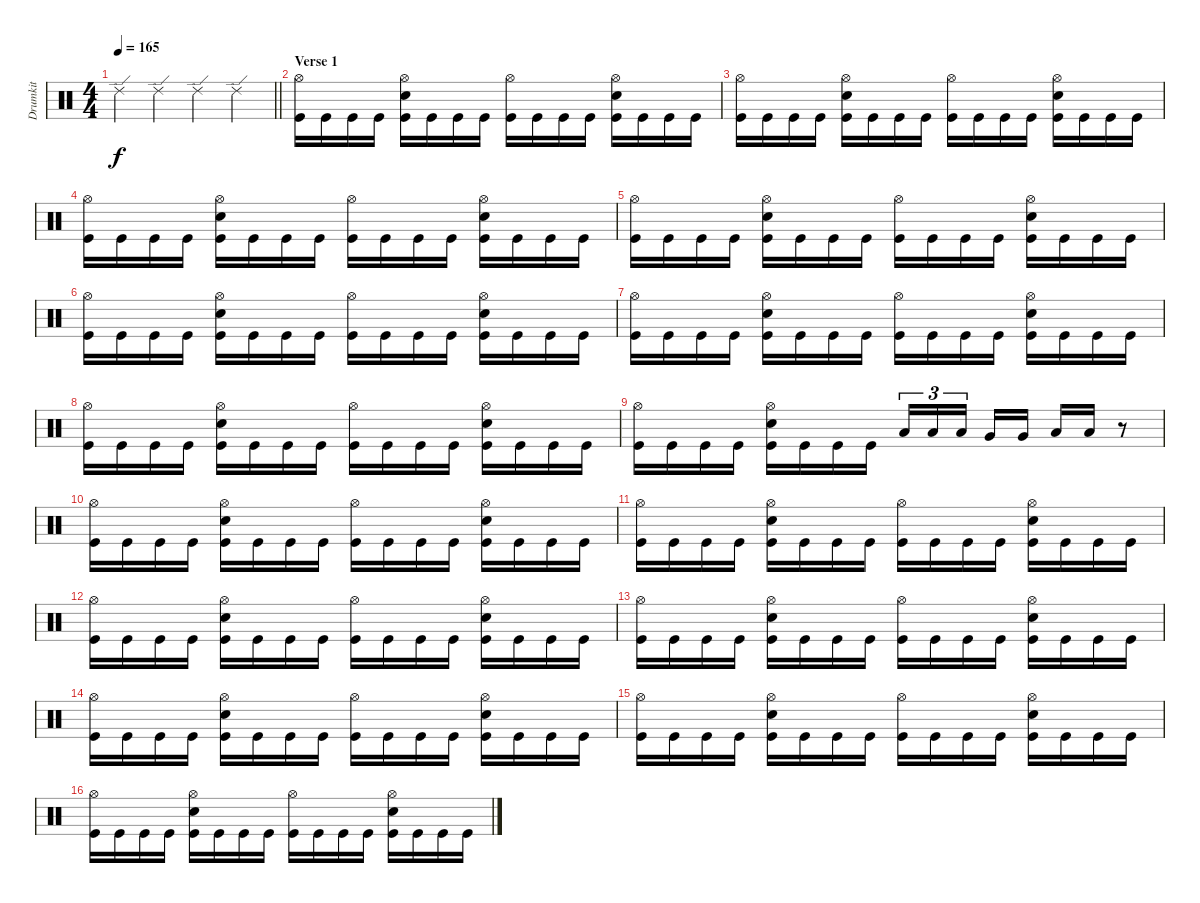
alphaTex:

\track ("Drumkit" "Drumkit") {instrument percussion}
\staff {score}
\articulation defaults
\ts (4 4)
\tempo 165
\clef neutral
\barLineRight lightlight
\ks c "Ride (edge) 2".4{dy f} "Ride (edge) 2".4 "Ride (edge) 2".4 "Ride (edge) 2".4
|
\section ("" "Verse 1")
("Hi-Hat (open)" "Kick (hit)").16 "Kick (hit)".16 "Kick (hit)".16 "Kick (hit)".16 ("Hi-Hat (open)" "Snare (hit) 2" "Kick (hit)").16 "Kick (hit)".16 "Kick (hit)".16 "Kick (hit)".16 ("Hi-Hat (open)" "Kick (hit)").16 "Kick (hit)".16 "Kick (hit)".16 "Kick (hit)".16 ("Hi-Hat (open)" "Snare (hit) 2" "Kick (hit)").16 "Kick (hit)".16 "Kick (hit)".16 "Kick (hit)".16 |
("Hi-Hat (open)" "Kick (hit)").16 "Kick (hit)".16 "Kick (hit)".16 "Kick (hit)".16 ("Hi-Hat (open)" "Snare (hit) 2" "Kick (hit)").16 "Kick (hit)".16 "Kick (hit)".16 "Kick (hit)".16 ("Hi-Hat (open)" "Kick (hit)").16 "Kick (hit)".16 "Kick (hit)".16 "Kick (hit)".16 ("Hi-Hat (open)" "Snare (hit) 2" "Kick (hit)").16 "Kick (hit)".16 "Kick (hit)".16 "Kick (hit)".16 |
("Hi-Hat (open)" "Kick (hit)").16 "Kick (hit)".16 "Kick (hit)".16 "Kick (hit)".16 ("Hi-Hat (open)" "Snare (hit) 2" "Kick (hit)").16 "Kick (hit)".16 "Kick (hit)".16 "Kick (hit)".16 ("Hi-Hat (open)" "Kick (hit)").16 "Kick (hit)".16 "Kick (hit)".16 "Kick (hit)".16 ("Hi-Hat (open)" "Snare (hit) 2" "Kick (hit)").16 "Kick (hit)".16 "Kick (hit)".16 "Kick (hit)".16 |
("Hi-Hat (open)" "Kick (hit)").16 "Kick (hit)".16 "Kick (hit)".16 "Kick (hit)".16 ("Hi-Hat (open)" "Snare (hit) 2" "Kick (hit)").16 "Kick (hit)".16 "Kick (hit)".16 "Kick (hit)".16 ("Hi-Hat (open)" "Kick (hit)").16 "Kick (hit)".16 "Kick (hit)".16 "Kick (hit)".16 ("Hi-Hat (open)" "Snare (hit) 2" "Kick (hit)").16 "Kick (hit)".16 "Kick (hit)".16 "Kick (hit)".16 |
("Hi-Hat (open)" "Kick (hit)").16 "Kick (hit)".16 "Kick (hit)".16 "Kick (hit)".16 ("Hi-Hat (open)" "Snare (hit) 2" "Kick (hit)").16 "Kick (hit)".16 "Kick (hit)".16 "Kick (hit)".16 ("Hi-Hat (open)" "Kick (hit)").16 "Kick (hit)".16 "Kick (hit)".16 "Kick (hit)".16 ("Hi-Hat (open)" "Snare (hit) 2" "Kick (hit)").16 "Kick (hit)".16 "Kick (hit)".16 "Kick (hit)".16 |
("Hi-Hat (open)" "Kick (hit)").16 "Kick (hit)".16 "Kick (hit)".16 "Kick (hit)".16 ("Hi-Hat (open)" "Snare (hit) 2" "Kick (hit)").16 "Kick (hit)".16 "Kick (hit)".16 "Kick (hit)".16 ("Hi-Hat (open)" "Kick (hit)").16 "Kick (hit)".16 "Kick (hit)".16 "Kick (hit)".16 ("Hi-Hat (open)" "Snare (hit) 2" "Kick (hit)").16 "Kick (hit)".16 "Kick (hit)".16 "Kick (hit)".16 |
("Hi-Hat (open)" "Kick (hit)").16 "Kick (hit)".16 "Kick (hit)".16 "Kick (hit)".16 ("Hi-Hat (open)" "Snare (hit) 2" "Kick (hit)").16 "Kick (hit)".16 "Kick (hit)".16 "Kick (hit)".16 ("Hi-Hat (open)" "Kick (hit)").16 "Kick (hit)".16 "Kick (hit)".16 "Kick (hit)".16 ("Hi-Hat (open)" "Snare (hit) 2" "Kick (hit)").16 "Kick (hit)".16 "Kick (hit)".16 "Kick (hit)".16 |
("Hi-Hat (open)" "Kick (hit)").16 "Kick (hit)".16 "Kick (hit)".16 "Kick (hit)".16 ("Hi-Hat (open)" "Snare (hit) 2" "Kick (hit)").16 "Kick (hit)".16 "Kick (hit)".16 "Kick (hit)".16 "Low Tom (hit)".16{tu (3 2)} "Low Tom (hit)".16{tu (3 2)} "Low Tom (hit)".16{tu (3 2)} "Very Low Tom (hit)".16 "Very Low Tom (hit)".16 "Low Floor Tom (hit)".16 "Low Floor Tom (hit)".16 r.8 |
("Hi-Hat (open)" "Kick (hit)").16 "Kick (hit)".16 "Kick (hit)".16 "Kick (hit)".16 ("Hi-Hat (open)" "Snare (hit) 2" "Kick (hit)").16 "Kick (hit)".16 "Kick (hit)".16 "Kick (hit)".16 ("Hi-Hat (open)" "Kick (hit)").16 "Kick (hit)".16 "Kick (hit)".16 "Kick (hit)".16 ("Hi-Hat (open)" "Snare (hit) 2" "Kick (hit)").16 "Kick (hit)".16 "Kick (hit)".16 "Kick (hit)".16 |
("Hi-Hat (open)" "Kick (hit)").16 "Kick (hit)".16 "Kick (hit)".16 "Kick (hit)".16 ("Hi-Hat (open)" "Snare (hit) 2" "Kick (hit)").16 "Kick (hit)".16 "Kick (hit)".16 "Kick (hit)".16 ("Hi-Hat (open)" "Kick (hit)").16 "Kick (hit)".16 "Kick (hit)".16 "Kick (hit)".16 ("Hi-Hat (open)" "Snare (hit) 2" "Kick (hit)").16 "Kick (hit)".16 "Kick (hit)".16 "Kick (hit)".16 |
("Hi-Hat (open)" "Kick (hit)").16 "Kick (hit)".16 "Kick (hit)".16 "Kick (hit)".16 ("Hi-Hat (open)" "Snare (hit) 2" "Kick (hit)").16 "Kick (hit)".16 "Kick (hit)".16 "Kick (hit)".16 ("Hi-Hat (open)" "Kick (hit)").16 "Kick (hit)".16 "Kick (hit)".16 "Kick (hit)".16 ("Hi-Hat (open)" "Snare (hit) 2" "Kick (hit)").16 "Kick (hit)".16 "Kick (hit)".16 "Kick (hit)".16 |
("Hi-Hat (open)" "Kick (hit)").16 "Kick (hit)".16 "Kick (hit)".16 "Kick (hit)".16 ("Hi-Hat (open)" "Snare (hit) 2" "Kick (hit)").16 "Kick (hit)".16 "Kick (hit)".16 "Kick (hit)".16 ("Hi-Hat (open)" "Kick (hit)").16 "Kick (hit)".16 "Kick (hit)".16 "Kick (hit)".16 ("Hi-Hat (open)" "Snare (hit) 2" "Kick (hit)").16 "Kick (hit)".16 "Kick (hit)".16 "Kick (hit)".16 |
("Hi-Hat (open)" "Kick (hit)").16 "Kick (hit)".16 "Kick (hit)".16 "Kick (hit)".16 ("Hi-Hat (open)" "Snare (hit) 2" "Kick (hit)").16 "Kick (hit)".16 "Kick (hit)".16 "Kick (hit)".16 ("Hi-Hat (open)" "Kick (hit)").16 "Kick (hit)".16 "Kick (hit)".16 "Kick (hit)".16 ("Hi-Hat (open)" "Snare (hit) 2" "Kick (hit)").16 "Kick (hit)".16 "Kick (hit)".16 "Kick (hit)".16 |
("Hi-Hat (open)" "Kick (hit)").16 "Kick (hit)".16 "Kick (hit)".16 "Kick (hit)".16 ("Hi-Hat (open)" "Snare (hit) 2" "Kick (hit)").16 "Kick (hit)".16 "Kick (hit)".16 "Kick (hit)".16 ("Hi-Hat (open)" "Kick (hit)").16 "Kick (hit)".16 "Kick (hit)".16 "Kick (hit)".16 ("Hi-Hat (open)" "Snare (hit) 2" "Kick (hit)").16 "Kick (hit)".16 "Kick (hit)".16 "Kick (hit)".16 |
("Hi-Hat (open)" "Kick (hit)").16 "Kick (hit)".16 "Kick (hit)".16 "Kick (hit)".16 ("Hi-Hat (open)" "Snare (hit) 2" "Kick (hit)").16 "Kick (hit)".16 "Kick (hit)".16 "Kick (hit)".16 ("Hi-Hat (open)" "Kick (hit)").16 "Kick (hit)".16 "Kick (hit)".16 "Kick (hit)".16 ("Hi-Hat (open)" "Snare (hit) 2" "Kick (hit)").16 "Kick (hit)".16 "Kick (hit)".16 "Kick (hit)".16
